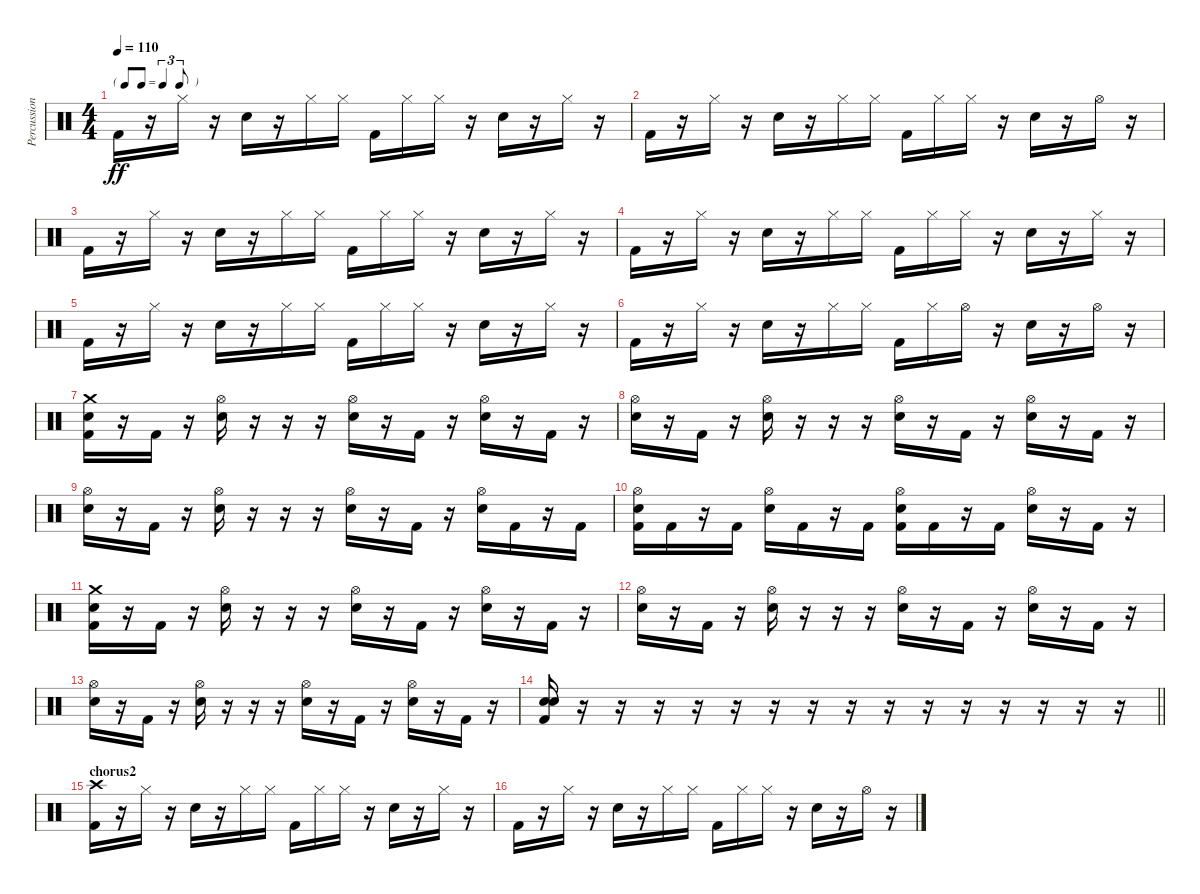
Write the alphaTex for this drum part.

\track ("Percussion" "Percussion") {instrument percussion}
\staff {score}
\articulation defaults
\ts (4 4)
\tf triplet8th
\tempo 110
\clef neutral
\ks c "Kick (hit) 2".16{dy ff}
r.16 "Hi-Hat (closed)".16 r.16 "Electric Snare (hit)".16 r.16 "Hi-Hat (closed)".16 "Hi-Hat (closed)".16 "Kick (hit) 2".16 "Hi-Hat (closed)".16 "Hi-Hat (closed)".16 r.16 "Electric Snare (hit)".16 r.16 "Hi-Hat (closed)".16 r.16 |
"Kick (hit) 2".16 r.16 "Hi-Hat (closed)".16 r.16 "Electric Snare (hit)".16 r.16 "Hi-Hat (closed)".16 "Hi-Hat (closed)".16 "Kick (hit) 2".16 "Hi-Hat (closed)".16 "Hi-Hat (closed)".16 r.16 "Electric Snare (hit)".16 r.16 "Hi-Hat (open)".16 r.16 |
"Kick (hit) 2".16 r.16 "Hi-Hat (closed)".16 r.16 "Electric Snare (hit)".16 r.16 "Hi-Hat (closed)".16 "Hi-Hat (closed)".16 "Kick (hit) 2".16 "Hi-Hat (closed)".16 "Hi-Hat (closed)".16 r.16 "Electric Snare (hit)".16 r.16 "Hi-Hat (closed)".16 r.16 |
"Kick (hit) 2".16 r.16 "Hi-Hat (closed)".16 r.16 "Electric Snare (hit)".16 r.16 "Hi-Hat (closed)".16 "Hi-Hat (closed)".16 "Kick (hit) 2".16 "Hi-Hat (closed)".16 "Hi-Hat (closed)".16 r.16 "Electric Snare (hit)".16 r.16 "Hi-Hat (closed)".16 r.16 |
"Kick (hit) 2".16 r.16 "Hi-Hat (closed)".16 r.16 "Electric Snare (hit)".16 r.16 "Hi-Hat (closed)".16 "Hi-Hat (closed)".16 "Kick (hit) 2".16 "Hi-Hat (closed)".16 "Hi-Hat (closed)".16 r.16 "Electric Snare (hit)".16 r.16 "Hi-Hat (closed)".16 r.16 |
"Kick (hit) 2".16 r.16 "Hi-Hat (closed)".16 r.16 "Electric Snare (hit)".16 r.16 "Hi-Hat (closed)".16 "Hi-Hat (closed)".16 "Kick (hit) 2".16 "Hi-Hat (closed)".16 "Hi-Hat (open)".16 r.16 "Electric Snare (hit)".16 r.16 "Hi-Hat (open)".16 r.16 |
("Crash medium (hit)" "Electric Snare (hit)" "Kick (hit) 2").16 r.16 "Kick (hit) 2".16 r.16 ("Hi-Hat (open)" "Electric Snare (hit)").16 r.16 r.16 r.16 ("Hi-Hat (open)" "Electric Snare (hit)").16 r.16 "Kick (hit) 2".16 r.16 ("Hi-Hat (open)" "Electric Snare (hit)").16 r.16 "Kick (hit) 2".16 r.16 |
("Hi-Hat (open)" "Electric Snare (hit)").16 r.16 "Kick (hit) 2".16 r.16 ("Hi-Hat (open)" "Electric Snare (hit)").16 r.16 r.16 r.16 ("Hi-Hat (open)" "Electric Snare (hit)").16 r.16 "Kick (hit) 2".16 r.16 ("Hi-Hat (open)" "Electric Snare (hit)").16 r.16 "Kick (hit) 2".16 r.16 |
("Hi-Hat (open)" "Electric Snare (hit)").16 r.16 "Kick (hit) 2".16 r.16 ("Hi-Hat (open)" "Electric Snare (hit)").16 r.16 r.16 r.16 ("Hi-Hat (open)" "Electric Snare (hit)").16 r.16 "Kick (hit) 2".16 r.16 ("Hi-Hat (open)" "Electric Snare (hit)").16 "Kick (hit) 2".16 r.16 "Kick (hit) 2".16 |
("Hi-Hat (open)" "Electric Snare (hit)" "Kick (hit) 2").16 "Kick (hit) 2".16 r.16 "Kick (hit) 2".16 ("Hi-Hat (open)" "Electric Snare (hit)").16 "Kick (hit) 2".16 r.16 "Kick (hit) 2".16 ("Hi-Hat (open)" "Electric Snare (hit)" "Kick (hit) 2").16 "Kick (hit) 2".16 r.16 "Kick (hit) 2".16 ("Hi-Hat (open)" "Electric Snare (hit)").16 r.16 "Kick (hit) 2".16 r.16 |
("Crash medium (hit)" "Electric Snare (hit)" "Kick (hit) 2").16 r.16 "Kick (hit) 2".16 r.16 ("Hi-Hat (open)" "Electric Snare (hit)").16 r.16 r.16 r.16 ("Hi-Hat (open)" "Electric Snare (hit)").16 r.16 "Kick (hit) 2".16 r.16 ("Hi-Hat (open)" "Electric Snare (hit)").16 r.16 "Kick (hit) 2".16 r.16 |
("Hi-Hat (open)" "Electric Snare (hit)").16 r.16 "Kick (hit) 2".16 r.16 ("Hi-Hat (open)" "Electric Snare (hit)").16 r.16 r.16 r.16 ("Hi-Hat (open)" "Electric Snare (hit)").16 r.16 "Kick (hit) 2".16 r.16 ("Hi-Hat (open)" "Electric Snare (hit)").16 r.16 "Kick (hit) 2".16 r.16 |
("Hi-Hat (open)" "Electric Snare (hit)").16 r.16 "Kick (hit) 2".16 r.16 ("Hi-Hat (open)" "Electric Snare (hit)").16 r.16 r.16 r.16 ("Hi-Hat (open)" "Electric Snare (hit)").16 r.16 "Kick (hit) 2".16 r.16 ("Hi-Hat (open)" "Electric Snare (hit)").16 r.16 "Kick (hit) 2".16 r.16 |
\barLineRight lightlight
("Electric Snare (hit)" "Electric Snare (hit)" "Kick (hit) 2").16 r.16 r.16 r.16 r.16 r.16 r.16 r.16 r.16 r.16 r.16 r.16 r.16 r.16 r.16 r.16 |
\section ("" "chorus2")
("Crash high (hit)" "Kick (hit) 2").16 r.16 "Hi-Hat (closed)".16 r.16 "Electric Snare (hit)".16 r.16 "Hi-Hat (closed)".16 "Hi-Hat (closed)".16 "Kick (hit) 2".16 "Hi-Hat (closed)".16 "Hi-Hat (closed)".16 r.16 "Electric Snare (hit)".16 r.16 "Hi-Hat (closed)".16 r.16 |
"Kick (hit) 2".16 r.16 "Hi-Hat (closed)".16 r.16 "Electric Snare (hit)".16 r.16 "Hi-Hat (closed)".16 "Hi-Hat (closed)".16 "Kick (hit) 2".16 "Hi-Hat (closed)".16 "Hi-Hat (closed)".16 r.16 "Electric Snare (hit)".16 r.16 "Hi-Hat (open)".16 r.16
